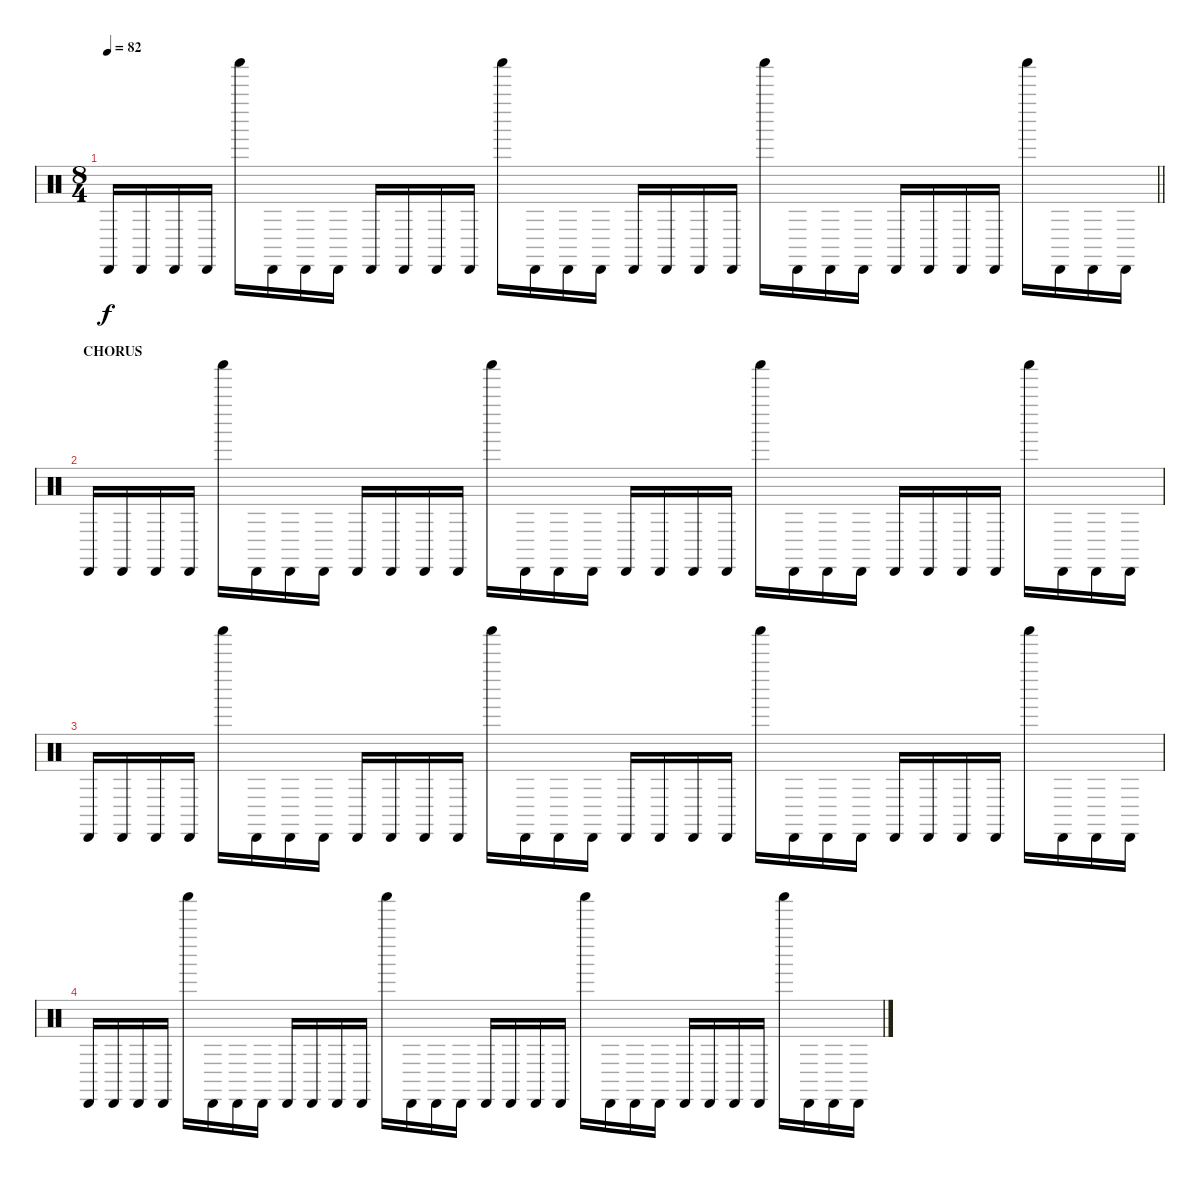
\track "" {instrument percussion}
\staff {score}
\articulation defaults
\ts (8 4)
\tempo 82
\clef neutral
\barLineRight lightlight
\ks c "Cabasa (hit)".16{dy f} "Cabasa (hit)".16 "Cabasa (hit)".16 "Cabasa (hit)".16 "Shaker (hit)".16 "Cabasa (hit)".16 "Cabasa (hit)".16 "Cabasa (hit)".16 "Cabasa (hit)".16 "Cabasa (hit)".16 "Cabasa (hit)".16 "Cabasa (hit)".16 "Shaker (hit)".16 "Cabasa (hit)".16 "Cabasa (hit)".16 "Cabasa (hit)".16 "Cabasa (hit)".16 "Cabasa (hit)".16 "Cabasa (hit)".16 "Cabasa (hit)".16 "Shaker (hit)".16 "Cabasa (hit)".16 "Cabasa (hit)".16 "Cabasa (hit)".16 "Cabasa (hit)".16 "Cabasa (hit)".16 "Cabasa (hit)".16 "Cabasa (hit)".16 "Shaker (hit)".16 "Cabasa (hit)".16 "Cabasa (hit)".16 "Cabasa (hit)".16
|
\section ("" "CHORUS")
"Cabasa (hit)".16 "Cabasa (hit)".16 "Cabasa (hit)".16 "Cabasa (hit)".16 "Shaker (hit)".16 "Cabasa (hit)".16 "Cabasa (hit)".16 "Cabasa (hit)".16 "Cabasa (hit)".16 "Cabasa (hit)".16 "Cabasa (hit)".16 "Cabasa (hit)".16 "Shaker (hit)".16 "Cabasa (hit)".16 "Cabasa (hit)".16 "Cabasa (hit)".16 "Cabasa (hit)".16 "Cabasa (hit)".16 "Cabasa (hit)".16 "Cabasa (hit)".16 "Shaker (hit)".16 "Cabasa (hit)".16 "Cabasa (hit)".16 "Cabasa (hit)".16 "Cabasa (hit)".16 "Cabasa (hit)".16 "Cabasa (hit)".16 "Cabasa (hit)".16 "Shaker (hit)".16 "Cabasa (hit)".16 "Cabasa (hit)".16 "Cabasa (hit)".16 |
"Cabasa (hit)".16 "Cabasa (hit)".16 "Cabasa (hit)".16 "Cabasa (hit)".16 "Shaker (hit)".16 "Cabasa (hit)".16 "Cabasa (hit)".16 "Cabasa (hit)".16 "Cabasa (hit)".16 "Cabasa (hit)".16 "Cabasa (hit)".16 "Cabasa (hit)".16 "Shaker (hit)".16 "Cabasa (hit)".16 "Cabasa (hit)".16 "Cabasa (hit)".16 "Cabasa (hit)".16 "Cabasa (hit)".16 "Cabasa (hit)".16 "Cabasa (hit)".16 "Shaker (hit)".16 "Cabasa (hit)".16 "Cabasa (hit)".16 "Cabasa (hit)".16 "Cabasa (hit)".16 "Cabasa (hit)".16 "Cabasa (hit)".16 "Cabasa (hit)".16 "Shaker (hit)".16 "Cabasa (hit)".16 "Cabasa (hit)".16 "Cabasa (hit)".16 |
"Cabasa (hit)".16 "Cabasa (hit)".16 "Cabasa (hit)".16 "Cabasa (hit)".16 "Shaker (hit)".16 "Cabasa (hit)".16 "Cabasa (hit)".16 "Cabasa (hit)".16 "Cabasa (hit)".16 "Cabasa (hit)".16 "Cabasa (hit)".16 "Cabasa (hit)".16 "Shaker (hit)".16 "Cabasa (hit)".16 "Cabasa (hit)".16 "Cabasa (hit)".16 "Cabasa (hit)".16 "Cabasa (hit)".16 "Cabasa (hit)".16 "Cabasa (hit)".16 "Shaker (hit)".16 "Cabasa (hit)".16 "Cabasa (hit)".16 "Cabasa (hit)".16 "Cabasa (hit)".16 "Cabasa (hit)".16 "Cabasa (hit)".16 "Cabasa (hit)".16 "Shaker (hit)".16 "Cabasa (hit)".16 "Cabasa (hit)".16 "Cabasa (hit)".16
